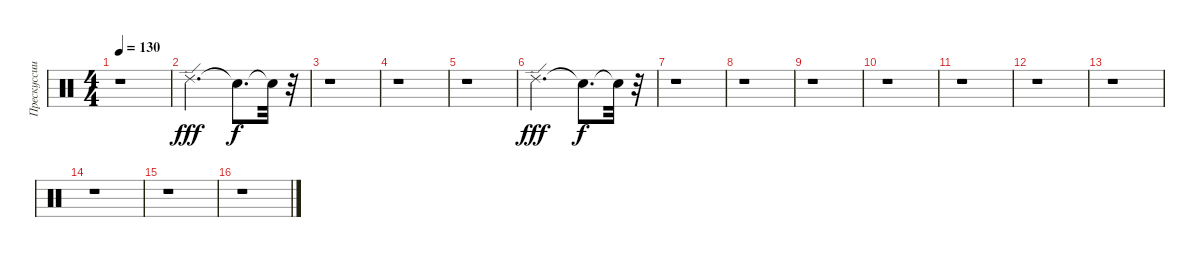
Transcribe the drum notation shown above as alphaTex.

\track ("Прескуссии 2" "Прескуссии") {instrument percussion}
\staff {score}
\articulation defaults
\ts (4 4)
\tempo 130
\clef neutral
\ks c
r.1{dy f} |
"Ride (edge) 2".2{d dy fff} "Snare (hit)"{t}.8{d dy f} "Snare (hit)"{t}.32 r.32 |
r.1 |
r.1 |
r.1 |
"Ride (edge) 2".2{d dy fff} "Snare (hit)"{t}.8{d dy f} "Snare (hit)"{t}.32 r.32 |
r.1 |
r.1 |
r.1 |
r.1 |
r.1 |
r.1 |
r.1 |
r.1 |
r.1 |
r.1
